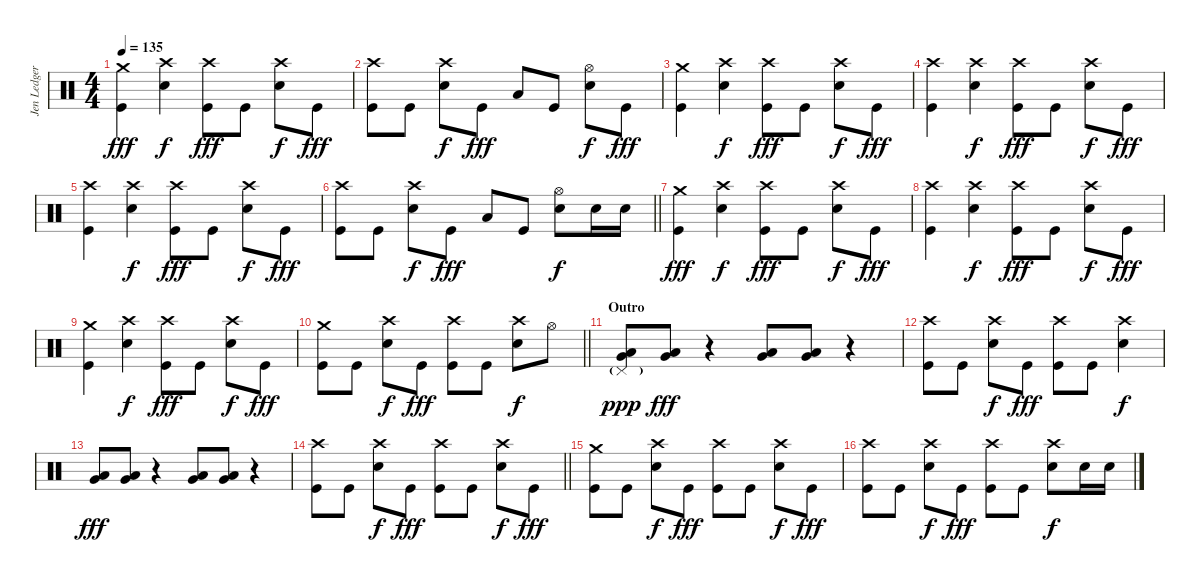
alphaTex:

\track ("Jen Ledger" "Jen Ledger") {instrument percussion}
\staff {score}
\articulation defaults
\ts (4 4)
\tempo 135
\clef neutral
\ks c
("Crash medium (hit)" "Kick (hit)").4{dy fff} ("Crash high (hit)" "Snare (hit) 2").4{dy f} ("Crash high (hit)" "Kick (hit)").8{dy fff} "Kick (hit)".8 ("Crash high (hit)" "Snare (hit) 2").8{dy f} "Kick (hit)".8{dy fff} |
("Crash high (hit)" "Kick (hit)").8 "Kick (hit)".8 ("Crash high (hit)" "Snare (hit) 2").8{dy f} "Kick (hit)".8{dy fff} "Low Tom (hit)".8 "Kick (hit)".8 ("Hi-Hat (open)" "Snare (hit) 2").8{dy f} "Kick (hit)".8{dy fff} |
("Crash medium (hit)" "Kick (hit)").4 ("Crash high (hit)" "Snare (hit) 2").4{dy f} ("Crash high (hit)" "Kick (hit)").8{dy fff} "Kick (hit)".8 ("Crash high (hit)" "Snare (hit) 2").8{dy f} "Kick (hit)".8{dy fff} |
("Crash high (hit)" "Kick (hit)").4 ("Crash high (hit)" "Snare (hit) 2").4{dy f} ("Crash high (hit)" "Kick (hit)").8{dy fff} "Kick (hit)".8 ("Crash high (hit)" "Snare (hit) 2").8{dy f} "Kick (hit)".8{dy fff} |
("Crash high (hit)" "Kick (hit)").4 ("Crash high (hit)" "Snare (hit) 2").4{dy f} ("Crash high (hit)" "Kick (hit)").8{dy fff} "Kick (hit)".8 ("Crash high (hit)" "Snare (hit) 2").8{dy f} "Kick (hit)".8{dy fff} |
\barLineRight lightlight
("Crash high (hit)" "Kick (hit)").8 "Kick (hit)".8 ("Crash high (hit)" "Snare (hit) 2").8{dy f} "Kick (hit)".8{dy fff} "Low Tom (hit)".8 "Kick (hit)".8 ("Hi-Hat (open)" "Snare (hit) 2").8{dy f} "Snare (hit) 2".16 "Snare (hit) 2".16 |
("Crash medium (hit)" "Kick (hit)").4{dy fff} ("Crash high (hit)" "Snare (hit) 2").4{dy f} ("Crash high (hit)" "Kick (hit)").8{dy fff} "Kick (hit)".8 ("Crash high (hit)" "Snare (hit) 2").8{dy f} "Kick (hit)".8{dy fff} |
("Crash high (hit)" "Kick (hit)").4 ("Crash high (hit)" "Snare (hit) 2").4{dy f} ("Crash high (hit)" "Kick (hit)").8{dy fff} "Kick (hit)".8 ("Crash high (hit)" "Snare (hit) 2").8{dy f} "Kick (hit)".8{dy fff} |
("Crash medium (hit)" "Kick (hit)").4 ("Crash high (hit)" "Snare (hit) 2").4{dy f} ("Crash high (hit)" "Kick (hit)").8{dy fff} "Kick (hit)".8 ("Crash high (hit)" "Snare (hit) 2").8{dy f} "Kick (hit)".8{dy fff} |
\barLineRight lightlight
("Crash medium (hit)" "Kick (hit)").8 "Kick (hit)".8 ("Crash high (hit)" "Snare (hit) 2").8{dy f} "Kick (hit)".8{dy fff} ("Crash high (hit)" "Kick (hit)").8 "Kick (hit)".8 ("Crash high (hit)" "Snare (hit) 2").8{dy f} "Hi-Hat (open)".8 |
\section ("" "Outro")
("Low Tom (hit)" "Very Low Tom (hit)" "Pedal Hi-Hat (hit)"{g}).8{dy ppp} ("Low Tom (hit)" "Very Low Tom (hit)").8{dy fff} r.4 ("Low Tom (hit)" "Very Low Tom (hit)").8 ("Low Tom (hit)" "Very Low Tom (hit)").8 r.4 |
("Crash high (hit)" "Kick (hit)").8 "Kick (hit)".8 ("Crash high (hit)" "Snare (hit) 2").8{dy f} "Kick (hit)".8{dy fff} ("Crash high (hit)" "Kick (hit)").8 "Kick (hit)".8 ("Crash high (hit)" "Snare (hit) 2").4{dy f} |
("Low Tom (hit)" "Very Low Tom (hit)").8{dy fff} ("Low Tom (hit)" "Very Low Tom (hit)").8 r.4 ("Low Tom (hit)" "Very Low Tom (hit)").8 ("Low Tom (hit)" "Very Low Tom (hit)").8 r.4 |
\barLineRight lightlight
("Crash high (hit)" "Kick (hit)").8 "Kick (hit)".8 ("Crash high (hit)" "Snare (hit) 2").8{dy f} "Kick (hit)".8{dy fff} ("Crash high (hit)" "Kick (hit)").8 "Kick (hit)".8 ("Crash high (hit)" "Snare (hit) 2").8{dy f} "Kick (hit)".8{dy fff} |
("Crash medium (hit)" "Kick (hit)").8 "Kick (hit)".8 ("Crash high (hit)" "Snare (hit) 2").8{dy f} "Kick (hit)".8{dy fff} ("Crash high (hit)" "Kick (hit)").8 "Kick (hit)".8 ("Crash high (hit)" "Snare (hit) 2").8{dy f} "Kick (hit)".8{dy fff} |
("Crash high (hit)" "Kick (hit)").8 "Kick (hit)".8 ("Crash high (hit)" "Snare (hit) 2").8{dy f} "Kick (hit)".8{dy fff} ("Crash high (hit)" "Kick (hit)").8 "Kick (hit)".8 ("Crash high (hit)" "Snare (hit) 2").8{dy f} "Snare (hit) 2".16 "Snare (hit) 2".16
